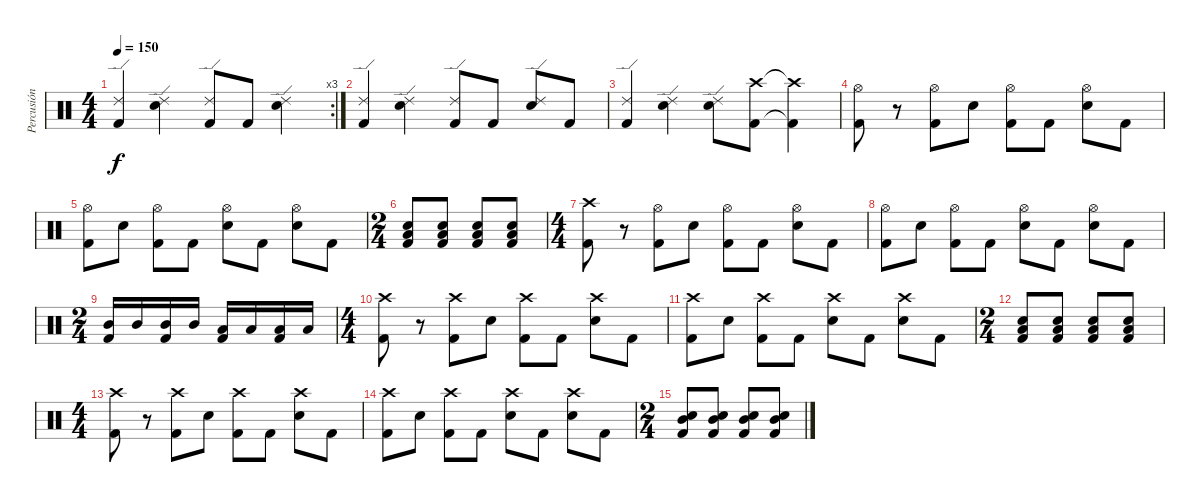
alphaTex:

\track ("Percusión" "Percusión") {instrument percussion}
\staff {score}
\articulation defaults
\rc 3
\ts (4 4)
\tempo 150
\clef neutral
\ks c
("Ride (edge) 2" "Kick (hit) 2").4{dy f} ("Ride (edge) 2" "Electric Snare (hit)").4 ("Ride (edge) 2" "Kick (hit) 2").8 "Kick (hit) 2".8 ("Ride (edge) 2" "Electric Snare (hit)").4 |
("Ride (edge) 2" "Kick (hit) 2").4 ("Ride (edge) 2" "Electric Snare (hit)").4 ("Ride (edge) 2" "Kick (hit) 2").8 "Kick (hit) 2".8 ("Ride (edge) 2" "Electric Snare (hit)").8 "Kick (hit) 2".8 |
("Ride (edge) 2" "Kick (hit) 2").4 ("Ride (edge) 2" "Electric Snare (hit)").4 ("Ride (edge) 2" "Electric Snare (hit)").8 ("Crash high (hit)" "Kick (hit) 2").8 ("Crash high (hit)"{t} "Kick (hit) 2"{t}).4 |
("Hi-Hat (open)" "Kick (hit) 2").8 r.8 ("Hi-Hat (open)" "Kick (hit) 2").8 "Electric Snare (hit)".8 ("Hi-Hat (open)" "Kick (hit) 2").8 "Kick (hit) 2".8 ("Hi-Hat (open)" "Electric Snare (hit)").8 "Kick (hit) 2".8 |
("Hi-Hat (open)" "Kick (hit) 2").8 "Electric Snare (hit)".8 ("Hi-Hat (open)" "Kick (hit) 2").8 "Kick (hit) 2".8 ("Hi-Hat (open)" "Electric Snare (hit)").8 "Kick (hit) 2".8 ("Hi-Hat (open)" "Electric Snare (hit)").8 "Kick (hit) 2".8 |
\ts (2 4)
("Low Tom (hit)" "Electric Snare (hit)" "Kick (hit) 2").8 ("Low Tom (hit)" "Electric Snare (hit)" "Kick (hit) 2").8 ("Low Tom (hit)" "Electric Snare (hit)" "Kick (hit) 2").8 ("Low Tom (hit)" "Electric Snare (hit)" "Kick (hit) 2").8 |
\ts (4 4)
("Crash high (hit)" "Kick (hit) 2").8 r.8 ("Hi-Hat (open)" "Kick (hit) 2").8 "Electric Snare (hit)".8 ("Hi-Hat (open)" "Kick (hit) 2").8 "Kick (hit) 2".8 ("Hi-Hat (open)" "Electric Snare (hit)").8 "Kick (hit) 2".8 |
("Hi-Hat (open)" "Kick (hit) 2").8 "Electric Snare (hit)".8 ("Hi-Hat (open)" "Kick (hit) 2").8 "Kick (hit) 2".8 ("Hi-Hat (open)" "Electric Snare (hit)").8 "Kick (hit) 2".8 ("Hi-Hat (open)" "Electric Snare (hit)").8 "Kick (hit) 2".8 |
\ts (2 4)
("Mid Tom (hit)" "Kick (hit) 2").16 "Mid Tom (hit)".16 ("Mid Tom (hit)" "Kick (hit) 2").16 "Mid Tom (hit)".16 ("Low Tom (hit)" "Kick (hit) 2").16 "Low Tom (hit)".16 ("Low Tom (hit)" "Kick (hit) 2").16 "Low Tom (hit)".16 |
\ts (4 4)
("Crash high (hit)" "Kick (hit) 2").8 r.8 ("Crash high (hit)" "Kick (hit) 2").8 "Electric Snare (hit)".8 ("Crash high (hit)" "Kick (hit) 2").8 "Kick (hit) 2".8 ("Crash high (hit)" "Electric Snare (hit)").8 "Kick (hit) 2".8 |
("Crash high (hit)" "Kick (hit) 2").8 "Electric Snare (hit)".8 ("Crash high (hit)" "Kick (hit) 2").8 "Kick (hit) 2".8 ("Crash high (hit)" "Electric Snare (hit)").8 "Kick (hit) 2".8 ("Crash high (hit)" "Electric Snare (hit)").8 "Kick (hit) 2".8 |
\ts (2 4)
("Low Tom (hit)" "Electric Snare (hit)" "Kick (hit) 2").8 ("Low Tom (hit)" "Electric Snare (hit)" "Kick (hit) 2").8 ("Low Tom (hit)" "Electric Snare (hit)" "Kick (hit) 2").8 ("Low Tom (hit)" "Electric Snare (hit)" "Kick (hit) 2").8 |
\ts (4 4)
("Crash high (hit)" "Kick (hit) 2").8 r.8 ("Crash high (hit)" "Kick (hit) 2").8 "Electric Snare (hit)".8 ("Crash high (hit)" "Kick (hit) 2").8 "Kick (hit) 2".8 ("Crash high (hit)" "Electric Snare (hit)").8 "Kick (hit) 2".8 |
("Crash high (hit)" "Kick (hit) 2").8 "Electric Snare (hit)".8 ("Crash high (hit)" "Kick (hit) 2").8 "Kick (hit) 2".8 ("Crash high (hit)" "Electric Snare (hit)").8 "Kick (hit) 2".8 ("Crash high (hit)" "Electric Snare (hit)").8 "Kick (hit) 2".8 |
\ts (2 4)
("Mid Tom (hit)" "Electric Snare (hit)" "Kick (hit) 2").8 ("Mid Tom (hit)" "Electric Snare (hit)" "Kick (hit) 2").8 ("Mid Tom (hit)" "Electric Snare (hit)" "Kick (hit) 2").8 ("Mid Tom (hit)" "Electric Snare (hit)" "Kick (hit) 2").8
